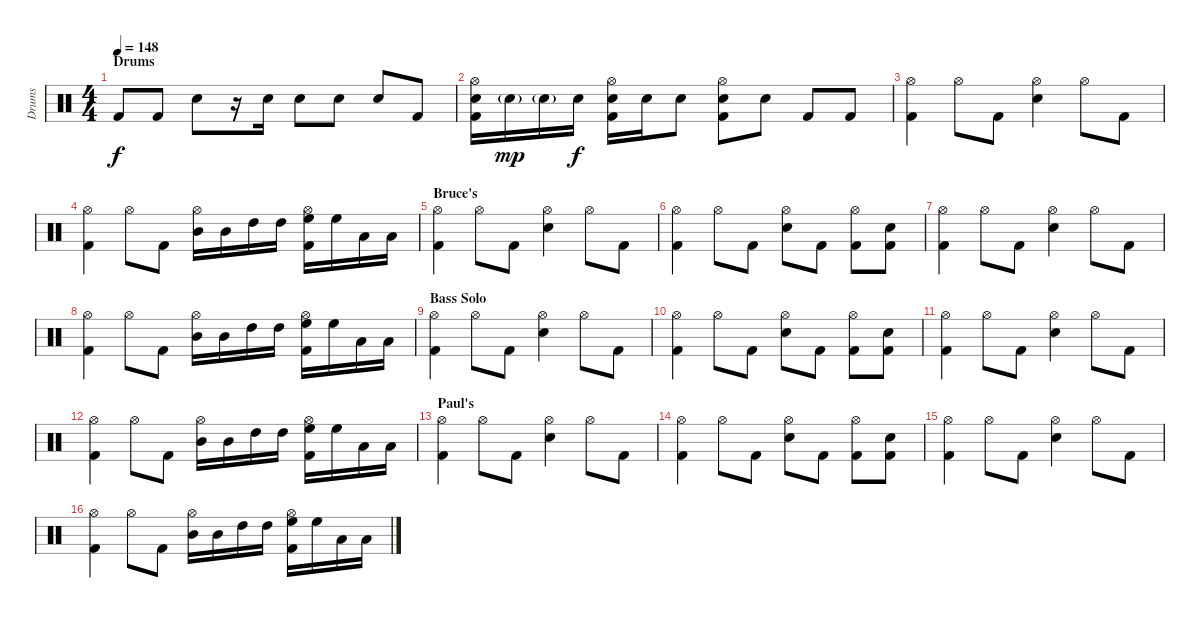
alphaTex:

\track ("Drums" "Drums") {instrument percussion}
\staff {score}
\articulation defaults
\ts (4 4)
\section ("" "Drums")
\tempo 148
\clef neutral
\ks c "Kick (hit) 2".8{dy f} "Kick (hit) 2".8 "Snare (hit) 2".8
r.16 "Snare (hit) 2".16 "Snare (hit) 2".8 "Snare (hit) 2".8 "Snare (hit) 2".8 "Kick (hit) 2".8 |
("Hi-Hat (open)" "Snare (hit) 2" "Kick (hit) 2").16 "Snare (hit) 2"{g}.16{dy mp} "Snare (hit) 2"{g}.16 "Snare (hit) 2".16{dy f} ("Hi-Hat (open)" "Snare (hit) 2" "Kick (hit) 2").16 "Snare (hit) 2".16 "Snare (hit) 2".8 ("Hi-Hat (open)" "Snare (hit) 2" "Kick (hit) 2").8 "Snare (hit) 2".8 "Kick (hit) 2".8 "Kick (hit) 2".8 |
("Hi-Hat (open)" "Kick (hit) 2").4 "Hi-Hat (open)".8 "Kick (hit) 2".8 ("Hi-Hat (open)" "Snare (hit) 2").4 "Hi-Hat (open)".8 "Kick (hit) 2".8 |
("Hi-Hat (open)" "Kick (hit) 2").4 "Hi-Hat (open)".8 "Kick (hit) 2".8 ("Hi-Hat (open)" "Mid Tom (hit)").16 "Mid Tom (hit)".16 "High Tom (hit)".16 "High Tom (hit)".16 ("Hi-Hat (open)" "High Floor Tom (hit)" "Kick (hit) 2").16 "High Floor Tom (hit)".16 "Low Tom (hit)".16 "Low Tom (hit)".16 |
\section ("" "Bruce's ")
("Hi-Hat (open)" "Kick (hit) 2").4 "Hi-Hat (open)".8 "Kick (hit) 2".8 ("Hi-Hat (open)" "Snare (hit) 2").4 "Hi-Hat (open)".8 "Kick (hit) 2".8 |
("Hi-Hat (open)" "Kick (hit) 2").4 "Hi-Hat (open)".8 "Kick (hit) 2".8 ("Hi-Hat (open)" "Snare (hit) 2").8 "Kick (hit) 2".8 ("Hi-Hat (open)" "Kick (hit) 2").8 ("Snare (hit) 2" "Kick (hit) 2").8 |
("Hi-Hat (open)" "Kick (hit) 2").4 "Hi-Hat (open)".8 "Kick (hit) 2".8 ("Hi-Hat (open)" "Snare (hit) 2").4 "Hi-Hat (open)".8 "Kick (hit) 2".8 |
("Hi-Hat (open)" "Kick (hit) 2").4 "Hi-Hat (open)".8 "Kick (hit) 2".8 ("Hi-Hat (open)" "Mid Tom (hit)").16 "Mid Tom (hit)".16 "High Tom (hit)".16 "High Tom (hit)".16 ("Hi-Hat (open)" "High Floor Tom (hit)" "Kick (hit) 2").16 "High Floor Tom (hit)".16 "Low Tom (hit)".16 "Low Tom (hit)".16 |
\section ("" "Bass Solo")
("Hi-Hat (open)" "Kick (hit) 2").4 "Hi-Hat (open)".8 "Kick (hit) 2".8 ("Hi-Hat (open)" "Snare (hit) 2").4 "Hi-Hat (open)".8 "Kick (hit) 2".8 |
("Hi-Hat (open)" "Kick (hit) 2").4 "Hi-Hat (open)".8 "Kick (hit) 2".8 ("Hi-Hat (open)" "Snare (hit) 2").8 "Kick (hit) 2".8 ("Hi-Hat (open)" "Kick (hit) 2").8 ("Snare (hit) 2" "Kick (hit) 2").8 |
("Hi-Hat (open)" "Kick (hit) 2").4 "Hi-Hat (open)".8 "Kick (hit) 2".8 ("Hi-Hat (open)" "Snare (hit) 2").4 "Hi-Hat (open)".8 "Kick (hit) 2".8 |
("Hi-Hat (open)" "Kick (hit) 2").4 "Hi-Hat (open)".8 "Kick (hit) 2".8 ("Hi-Hat (open)" "Mid Tom (hit)").16 "Mid Tom (hit)".16 "High Tom (hit)".16 "High Tom (hit)".16 ("Hi-Hat (open)" "High Floor Tom (hit)" "Kick (hit) 2").16 "High Floor Tom (hit)".16 "Low Tom (hit)".16 "Low Tom (hit)".16 |
\section ("" "Paul's")
("Hi-Hat (open)" "Kick (hit) 2").4 "Hi-Hat (open)".8 "Kick (hit) 2".8 ("Hi-Hat (open)" "Snare (hit) 2").4 "Hi-Hat (open)".8 "Kick (hit) 2".8 |
("Hi-Hat (open)" "Kick (hit) 2").4 "Hi-Hat (open)".8 "Kick (hit) 2".8 ("Hi-Hat (open)" "Snare (hit) 2").8 "Kick (hit) 2".8 ("Hi-Hat (open)" "Kick (hit) 2").8 ("Snare (hit) 2" "Kick (hit) 2").8 |
("Hi-Hat (open)" "Kick (hit) 2").4 "Hi-Hat (open)".8 "Kick (hit) 2".8 ("Hi-Hat (open)" "Snare (hit) 2").4 "Hi-Hat (open)".8 "Kick (hit) 2".8 |
("Hi-Hat (open)" "Kick (hit) 2").4 "Hi-Hat (open)".8 "Kick (hit) 2".8 ("Hi-Hat (open)" "Mid Tom (hit)").16 "Mid Tom (hit)".16 "High Tom (hit)".16 "High Tom (hit)".16 ("Hi-Hat (open)" "High Floor Tom (hit)" "Kick (hit) 2").16 "High Floor Tom (hit)".16 "Low Tom (hit)".16 "Low Tom (hit)".16
